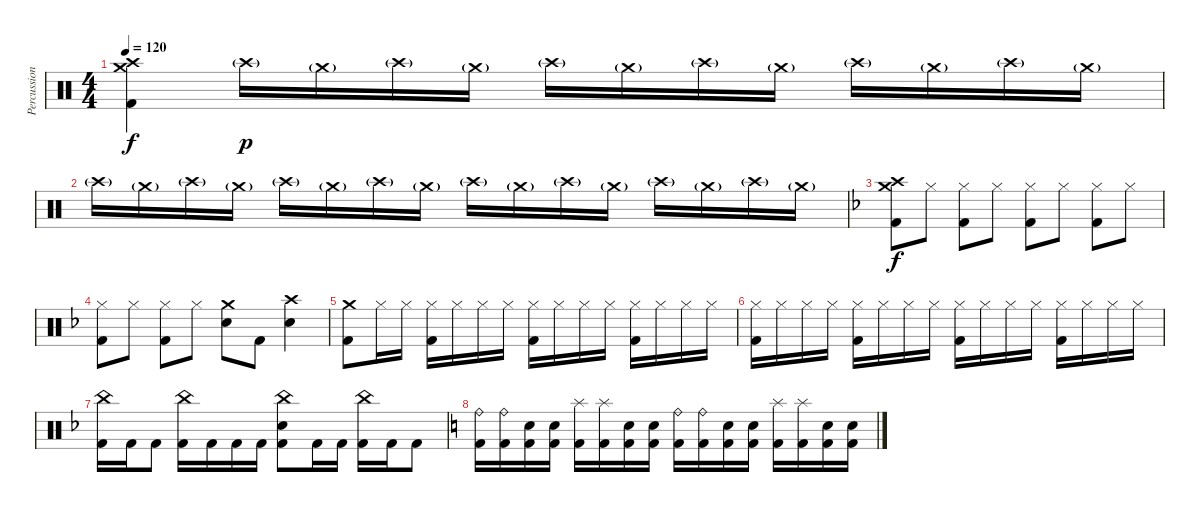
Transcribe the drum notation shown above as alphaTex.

\track ("Percussions" "Percussion") {instrument percussion}
\staff {score}
\articulation defaults
\ts (4 4)
\tempo 120
\clef neutral
\ks c
("Crash medium (hit)" "Crash high (hit)" "Kick (hit) 2").4{dy f volume 8} "Crash high (hit)"{g}.16{dy p} "Crash medium (hit)"{g}.16 "Crash high (hit)"{g}.16 "Crash medium (hit)"{g}.16 "Crash high (hit)"{g}.16 "Crash medium (hit)"{g}.16 "Crash high (hit)"{g}.16 "Crash medium (hit)"{g}.16 "Crash high (hit)"{g}.16 "Crash medium (hit)"{g}.16 "Crash high (hit)"{g}.16 "Crash medium (hit)"{g}.16 |
"Crash high (hit)"{g}.16 "Crash medium (hit)"{g}.16 "Crash high (hit)"{g}.16 "Crash medium (hit)"{g}.16 "Crash high (hit)"{g}.16 "Crash medium (hit)"{g}.16 "Crash high (hit)"{g}.16 "Crash medium (hit)"{g}.16 "Crash high (hit)"{g}.16 "Crash medium (hit)"{g}.16 "Crash high (hit)"{g}.16 "Crash medium (hit)"{g}.16 "Crash high (hit)"{g}.16 "Crash medium (hit)"{g}.16 "Crash high (hit)"{g}.16 "Crash medium (hit)"{g}.16 |
\ks f
("Crash medium (hit)" "Crash high (hit)" "Kick (hit) 2").8{dy f volume 12} "Hi-Hat (closed)".8 ("Hi-Hat (closed)" "Kick (hit) 2").8 "Hi-Hat (closed)".8 ("Hi-Hat (closed)" "Kick (hit) 2").8 "Hi-Hat (closed)".8 ("Hi-Hat (closed)" "Kick (hit) 2").8 "Hi-Hat (closed)".8 |
("Hi-Hat (closed)" "Kick (hit) 2").8 "Hi-Hat (closed)".8 ("Hi-Hat (closed)" "Kick (hit) 2").8 "Hi-Hat (closed)".8 ("Crash medium (hit)" "Electric Snare (hit)").8 "Kick (hit) 2".8 ("Crash high (hit)" "Electric Snare (hit)").4 |
("Crash medium (hit)" "Kick (hit) 2").8{volume 0} "Hi-Hat (closed)".16 "Hi-Hat (closed)".16 ("Hi-Hat (closed)" "Kick (hit) 2").16 "Hi-Hat (closed)".16 "Hi-Hat (closed)".16 "Hi-Hat (closed)".16 ("Hi-Hat (closed)" "Kick (hit) 2").16 "Hi-Hat (closed)".16 "Hi-Hat (closed)".16 "Hi-Hat (closed)".16 ("Hi-Hat (closed)" "Kick (hit) 2").16 "Hi-Hat (closed)".16 "Hi-Hat (closed)".16 "Hi-Hat (closed)".16 |
("Hi-Hat (closed)" "Kick (hit) 2").16 "Hi-Hat (closed)".16 "Hi-Hat (closed)".16 "Hi-Hat (closed)".16 ("Hi-Hat (closed)" "Kick (hit) 2").16 "Hi-Hat (closed)".16 "Hi-Hat (closed)".16 "Hi-Hat (closed)".16 ("Hi-Hat (closed)" "Kick (hit) 2").16 "Hi-Hat (closed)".16 "Hi-Hat (closed)".16 "Hi-Hat (closed)".16 ("Hi-Hat (closed)" "Kick (hit) 2").16 "Hi-Hat (closed)".16 "Hi-Hat (closed)".16 "Hi-Hat (closed)".16 |
("China (hit)" "Kick (hit) 2").16 "Kick (hit) 2".16 "Kick (hit) 2".8 ("China (hit)" "Kick (hit) 2").16 "Kick (hit) 2".16 "Kick (hit) 2".16 "Kick (hit) 2".16 ("China (hit)" "Electric Snare (hit)" "Kick (hit) 2").8 "Kick (hit) 2".16 "Kick (hit) 2".16 ("China (hit)" "Kick (hit) 2").16 "Kick (hit) 2".16 "Kick (hit) 2".8 |
\ks c
("Ride (bell)" "Kick (hit) 2").16 ("Ride (bell)" "Kick (hit) 2").16 ("Electric Snare (hit)" "Kick (hit) 2").16 ("Electric Snare (hit)" "Kick (hit) 2").16 ("Splash (hit)" "Kick (hit) 2").16 ("Splash (hit)" "Kick (hit) 2").16 ("Electric Snare (hit)" "Kick (hit) 2").16 ("Electric Snare (hit)" "Kick (hit) 2").16 ("Ride (bell)" "Kick (hit) 2").16 ("Ride (bell)" "Kick (hit) 2").16 ("Electric Snare (hit)" "Kick (hit) 2").16 ("Electric Snare (hit)" "Kick (hit) 2").16 ("Splash (hit)" "Kick (hit) 2").16 ("Splash (hit)" "Kick (hit) 2").16 ("Electric Snare (hit)" "Kick (hit) 2").16 ("Electric Snare (hit)" "Kick (hit) 2").16
